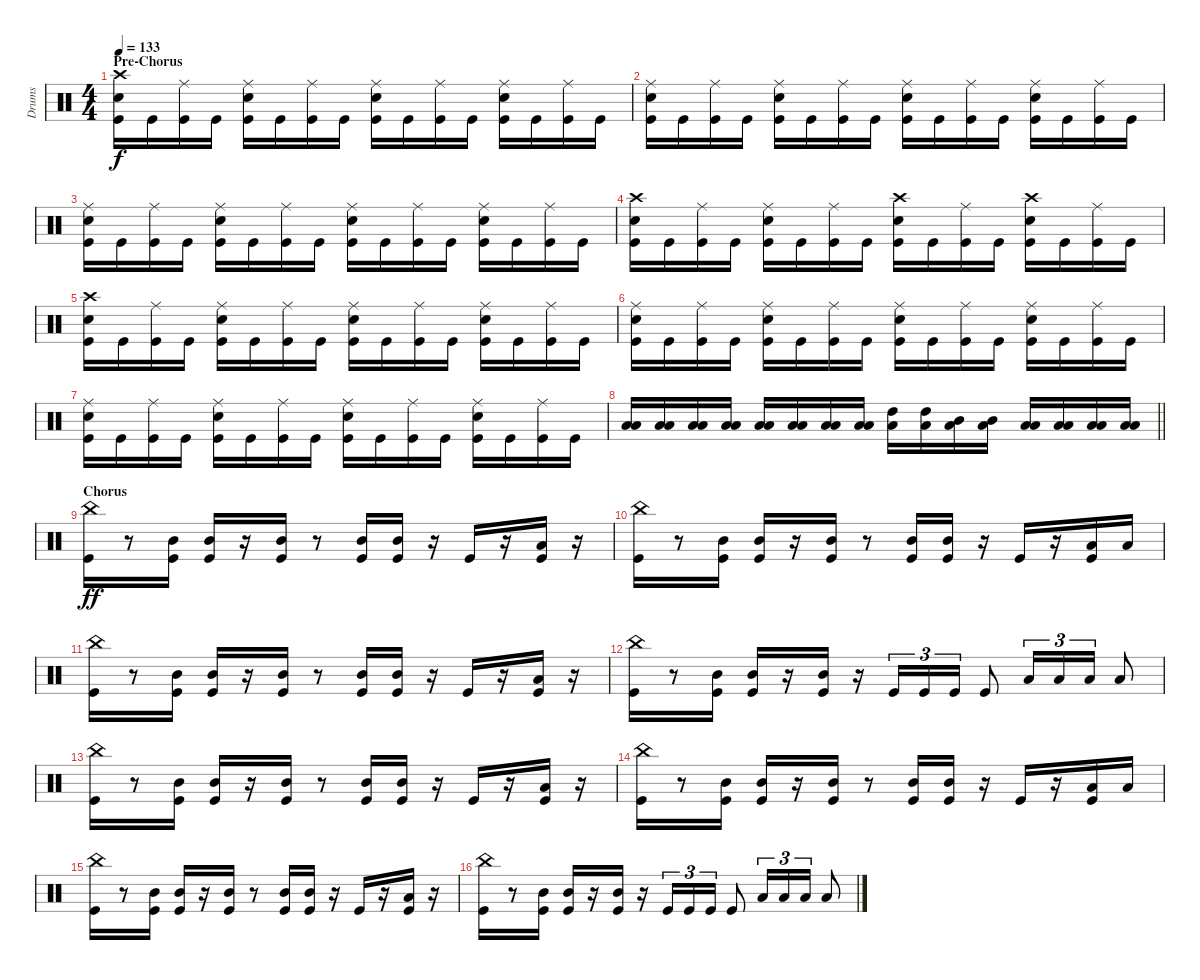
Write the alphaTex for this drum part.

\track ("Drums" "Drums") {instrument percussion}
\staff {score}
\articulation defaults
\ts (4 4)
\section ("" "Pre-Chorus")
\tempo 133
\clef neutral
\ks c
("Crash high (hit)" "Snare (hit) 2" "Kick (hit)").16{dy f} "Kick (hit)".16 ("Ride (middle)" "Kick (hit)").16 "Kick (hit)".16 ("Ride (middle)" "Snare (hit) 2" "Kick (hit)").16 "Kick (hit)".16 ("Ride (middle)" "Kick (hit)").16 "Kick (hit)".16 ("Ride (middle)" "Snare (hit) 2" "Kick (hit)").16 "Kick (hit)".16 ("Ride (middle)" "Kick (hit)").16 "Kick (hit)".16 ("Ride (middle)" "Snare (hit) 2" "Kick (hit)").16 "Kick (hit)".16 ("Ride (middle)" "Kick (hit)").16 "Kick (hit)".16 |
("Ride (middle)" "Snare (hit) 2" "Kick (hit)").16 "Kick (hit)".16 ("Ride (middle)" "Kick (hit)").16 "Kick (hit)".16 ("Ride (middle)" "Snare (hit) 2" "Kick (hit)").16 "Kick (hit)".16 ("Ride (middle)" "Kick (hit)").16 "Kick (hit)".16 ("Ride (middle)" "Snare (hit) 2" "Kick (hit)").16 "Kick (hit)".16 ("Ride (middle)" "Kick (hit)").16 "Kick (hit)".16 ("Ride (middle)" "Snare (hit) 2" "Kick (hit)").16 "Kick (hit)".16 ("Ride (middle)" "Kick (hit)").16 "Kick (hit)".16 |
("Ride (middle)" "Snare (hit) 2" "Kick (hit)").16 "Kick (hit)".16 ("Ride (middle)" "Kick (hit)").16 "Kick (hit)".16 ("Ride (middle)" "Snare (hit) 2" "Kick (hit)").16 "Kick (hit)".16 ("Ride (middle)" "Kick (hit)").16 "Kick (hit)".16 ("Ride (middle)" "Snare (hit) 2" "Kick (hit)").16 "Kick (hit)".16 ("Ride (middle)" "Kick (hit)").16 "Kick (hit)".16 ("Ride (middle)" "Snare (hit) 2" "Kick (hit)").16 "Kick (hit)".16 ("Ride (middle)" "Kick (hit)").16 "Kick (hit)".16 |
("Crash high (hit)" "Snare (hit) 2" "Kick (hit)").16 "Kick (hit)".16 ("Ride (middle)" "Kick (hit)").16 "Kick (hit)".16 ("Ride (middle)" "Snare (hit) 2" "Kick (hit)").16 "Kick (hit)".16 ("Ride (middle)" "Kick (hit)").16 "Kick (hit)".16 ("Crash high (hit)" "Snare (hit) 2" "Kick (hit)").16 "Kick (hit)".16 ("Ride (middle)" "Kick (hit)").16 "Kick (hit)".16 ("Crash high (hit)" "Snare (hit) 2" "Kick (hit)").16 "Kick (hit)".16 ("Ride (middle)" "Kick (hit)").16 "Kick (hit)".16 |
("Crash high (hit)" "Snare (hit) 2" "Kick (hit)").16 "Kick (hit)".16 ("Ride (middle)" "Kick (hit)").16 "Kick (hit)".16 ("Ride (middle)" "Snare (hit) 2" "Kick (hit)").16 "Kick (hit)".16 ("Ride (middle)" "Kick (hit)").16 "Kick (hit)".16 ("Ride (middle)" "Snare (hit) 2" "Kick (hit)").16 "Kick (hit)".16 ("Ride (middle)" "Kick (hit)").16 "Kick (hit)".16 ("Ride (middle)" "Snare (hit) 2" "Kick (hit)").16 "Kick (hit)".16 ("Ride (middle)" "Kick (hit)").16 "Kick (hit)".16 |
("Ride (middle)" "Snare (hit) 2" "Kick (hit)").16 "Kick (hit)".16 ("Ride (middle)" "Kick (hit)").16 "Kick (hit)".16 ("Ride (middle)" "Snare (hit) 2" "Kick (hit)").16 "Kick (hit)".16 ("Ride (middle)" "Kick (hit)").16 "Kick (hit)".16 ("Ride (middle)" "Snare (hit) 2" "Kick (hit)").16 "Kick (hit)".16 ("Ride (middle)" "Kick (hit)").16 "Kick (hit)".16 ("Ride (middle)" "Snare (hit) 2" "Kick (hit)").16 "Kick (hit)".16 ("Ride (middle)" "Kick (hit)").16 "Kick (hit)".16 |
("Ride (middle)" "Snare (hit) 2" "Kick (hit)").16 "Kick (hit)".16 ("Ride (middle)" "Kick (hit)").16 "Kick (hit)".16 ("Ride (middle)" "Snare (hit) 2" "Kick (hit)").16 "Kick (hit)".16 ("Ride (middle)" "Kick (hit)").16 "Kick (hit)".16 ("Ride (middle)" "Snare (hit) 2" "Kick (hit)").16 "Kick (hit)".16 ("Ride (middle)" "Kick (hit)").16 "Kick (hit)".16 ("Ride (middle)" "Snare (hit) 2" "Kick (hit)").16 "Kick (hit)".16 ("Ride (middle)" "Kick (hit)").16 "Kick (hit)".16 |
\barLineRight lightlight
("Low Tom (hit)" "Low Floor Tom (hit)").16 ("Low Tom (hit)" "Low Floor Tom (hit)").16 ("Low Tom (hit)" "Low Floor Tom (hit)").16 ("Low Tom (hit)" "Low Floor Tom (hit)").16 ("Low Tom (hit)" "Low Floor Tom (hit)").16 ("Low Tom (hit)" "Low Floor Tom (hit)").16 ("Low Tom (hit)" "Low Floor Tom (hit)").16 ("Low Tom (hit)" "Low Floor Tom (hit)").16 ("High Tom (hit)" "Low Floor Tom (hit)").16 ("High Tom (hit)" "Low Floor Tom (hit)").16 ("Mid Tom (hit)" "Low Floor Tom (hit)").16 ("Mid Tom (hit)" "Low Floor Tom (hit)").16 ("Low Tom (hit)" "Low Floor Tom (hit)").16 ("Low Tom (hit)" "Low Floor Tom (hit)").16 ("Low Tom (hit)" "Low Floor Tom (hit)").16 ("Low Tom (hit)" "Low Floor Tom (hit)").16 |
\section ("" "Chorus")
("China (hit)" "Kick (hit)").16{dy ff} r.8 ("Mid Tom (hit)" "Kick (hit)").16 ("Mid Tom (hit)" "Kick (hit)").16 r.16 ("Mid Tom (hit)" "Kick (hit)").16 r.8 ("Mid Tom (hit)" "Kick (hit)").16 ("Mid Tom (hit)" "Kick (hit)").16 r.16 "Kick (hit)".16 r.16 ("Low Tom (hit)" "Kick (hit)").16 r.16 |
("China (hit)" "Kick (hit)").16 r.8 ("Mid Tom (hit)" "Kick (hit)").16 ("Mid Tom (hit)" "Kick (hit)").16 r.16 ("Mid Tom (hit)" "Kick (hit)").16 r.8 ("Mid Tom (hit)" "Kick (hit)").16 ("Mid Tom (hit)" "Kick (hit)").16 r.16 "Kick (hit)".16 r.16 ("Low Tom (hit)" "Kick (hit)").16 "Low Tom (hit)".16 |
("China (hit)" "Kick (hit)").16 r.8 ("Mid Tom (hit)" "Kick (hit)").16 ("Mid Tom (hit)" "Kick (hit)").16 r.16 ("Mid Tom (hit)" "Kick (hit)").16 r.8 ("Mid Tom (hit)" "Kick (hit)").16 ("Mid Tom (hit)" "Kick (hit)").16 r.16 "Kick (hit)".16 r.16 ("Low Tom (hit)" "Kick (hit)").16 r.16 |
("China (hit)" "Kick (hit)").16 r.8 ("Mid Tom (hit)" "Kick (hit)").16 ("Mid Tom (hit)" "Kick (hit)").16 r.16 ("Mid Tom (hit)" "Kick (hit)").16 r.16 "Kick (hit)".16{tu (3 2)} "Kick (hit)".16{tu (3 2)} "Kick (hit)".16{tu (3 2)} "Kick (hit)".8 "Low Tom (hit)".16{tu (3 2)} "Low Tom (hit)".16{tu (3 2)} "Low Tom (hit)".16{tu (3 2)} "Low Tom (hit)".8 |
("China (hit)" "Kick (hit)").16 r.8 ("Mid Tom (hit)" "Kick (hit)").16 ("Mid Tom (hit)" "Kick (hit)").16 r.16 ("Mid Tom (hit)" "Kick (hit)").16 r.8 ("Mid Tom (hit)" "Kick (hit)").16 ("Mid Tom (hit)" "Kick (hit)").16 r.16 "Kick (hit)".16 r.16 ("Low Tom (hit)" "Kick (hit)").16 r.16 |
("China (hit)" "Kick (hit)").16 r.8 ("Mid Tom (hit)" "Kick (hit)").16 ("Mid Tom (hit)" "Kick (hit)").16 r.16 ("Mid Tom (hit)" "Kick (hit)").16 r.8 ("Mid Tom (hit)" "Kick (hit)").16 ("Mid Tom (hit)" "Kick (hit)").16 r.16 "Kick (hit)".16 r.16 ("Low Tom (hit)" "Kick (hit)").16 "Low Tom (hit)".16 |
("China (hit)" "Kick (hit)").16 r.8 ("Mid Tom (hit)" "Kick (hit)").16 ("Mid Tom (hit)" "Kick (hit)").16 r.16 ("Mid Tom (hit)" "Kick (hit)").16 r.8 ("Mid Tom (hit)" "Kick (hit)").16 ("Mid Tom (hit)" "Kick (hit)").16 r.16 "Kick (hit)".16 r.16 ("Low Tom (hit)" "Kick (hit)").16 r.16 |
("China (hit)" "Kick (hit)").16 r.8 ("Mid Tom (hit)" "Kick (hit)").16 ("Mid Tom (hit)" "Kick (hit)").16 r.16 ("Mid Tom (hit)" "Kick (hit)").16 r.16 "Kick (hit)".16{tu (3 2)} "Kick (hit)".16{tu (3 2)} "Kick (hit)".16{tu (3 2)} "Kick (hit)".8 "Low Tom (hit)".16{tu (3 2)} "Low Tom (hit)".16{tu (3 2)} "Low Tom (hit)".16{tu (3 2)} "Low Tom (hit)".8
